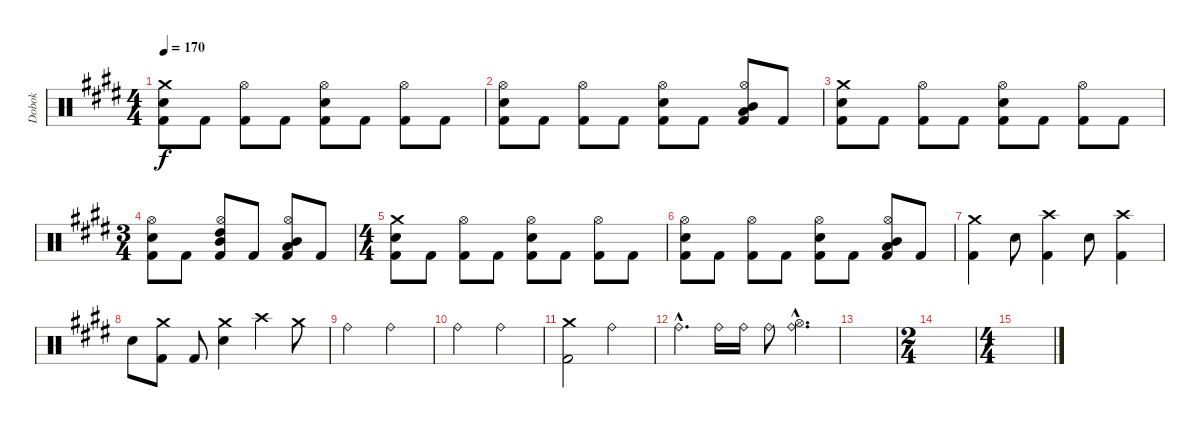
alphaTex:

\track ("Dobok" "Dobok") {instrument percussion}
\staff {score}
\articulation defaults
\ts (4 4)
\tempo 170
\clef neutral
\ks c#minor
("Crash medium (hit)" "Snare (hit) 2" "Kick (hit) 2").8{dy f} "Kick (hit) 2".8 ("Hi-Hat (open)" "Kick (hit) 2").8 "Kick (hit) 2".8 ("Hi-Hat (open)" "Snare (hit) 2" "Kick (hit) 2").8 "Kick (hit) 2".8 ("Hi-Hat (open)" "Kick (hit) 2").8 "Kick (hit) 2".8 |
("Hi-Hat (open)" "Snare (hit) 2" "Kick (hit) 2").8 "Kick (hit) 2".8 ("Hi-Hat (open)" "Kick (hit) 2").8 "Kick (hit) 2".8 ("Hi-Hat (open)" "Snare (hit) 2" "Kick (hit) 2").8 "Kick (hit) 2".8 ("Hi-Hat (open)" "Low Tom (hit)" "Mid Tom (hit)" "Kick (hit) 2").8 "Kick (hit) 2".8 |
("Crash medium (hit)" "Snare (hit) 2" "Kick (hit) 2").8 "Kick (hit) 2".8 ("Hi-Hat (open)" "Kick (hit) 2").8 "Kick (hit) 2".8 ("Hi-Hat (open)" "Snare (hit) 2" "Kick (hit) 2").8 "Kick (hit) 2".8 ("Hi-Hat (open)" "Kick (hit) 2").8 "Kick (hit) 2".8 |
\ts (3 4)
("Hi-Hat (open)" "Snare (hit) 2" "Kick (hit) 2").8 "Kick (hit) 2".8 ("Hi-Hat (open)" "High Tom (hit)" "Mid Tom (hit)" "Kick (hit) 2").8 "Kick (hit) 2".8 ("Hi-Hat (open)" "Mid Tom (hit)" "Low Tom (hit)" "Kick (hit) 2").8 "Kick (hit) 2".8 |
\ts (4 4)
("Crash medium (hit)" "Snare (hit) 2" "Kick (hit) 2").8 "Kick (hit) 2".8 ("Hi-Hat (open)" "Kick (hit) 2").8 "Kick (hit) 2".8 ("Hi-Hat (open)" "Snare (hit) 2" "Kick (hit) 2").8 "Kick (hit) 2".8 ("Hi-Hat (open)" "Kick (hit) 2").8 "Kick (hit) 2".8 |
("Hi-Hat (open)" "Snare (hit) 2" "Kick (hit) 2").8 "Kick (hit) 2".8 ("Hi-Hat (open)" "Kick (hit) 2").8 "Kick (hit) 2".8 ("Hi-Hat (open)" "Snare (hit) 2" "Kick (hit) 2").8 "Kick (hit) 2".8 ("Hi-Hat (open)" "Low Tom (hit)" "Mid Tom (hit)" "Kick (hit) 2").8 "Kick (hit) 2".8 |
("Crash medium (hit)" "Kick (hit) 2").4 "Snare (hit) 2".8 ("Crash high (hit)" "Kick (hit) 2").4 "Snare (hit) 2".8 ("Crash high (hit)" "Kick (hit) 2").4 |
"Snare (hit) 2".8 ("Crash medium (hit)" "Kick (hit) 2").8 "Kick (hit) 2".8 ("Crash medium (hit)" "Snare (hit) 2").4 "Crash high (hit)".4 "Crash medium (hit)".8 |
"Ride (bell)".2 "Ride (bell)".2 |
"Ride (bell)".2 "Ride (bell)".2 |
("Crash medium (hit)" "Kick (hit) 2").2 "Ride (bell)".2 |
"Ride (bell)"{hac}.4{d} "Ride (bell)".16 "Ride (bell)".16 "Ride (bell)".8 ("Ride (bell)"{hac} "Hi-Hat (open)"{hac}).4{d} |
|
\ts (2 4)
|
\ts (4 4)
